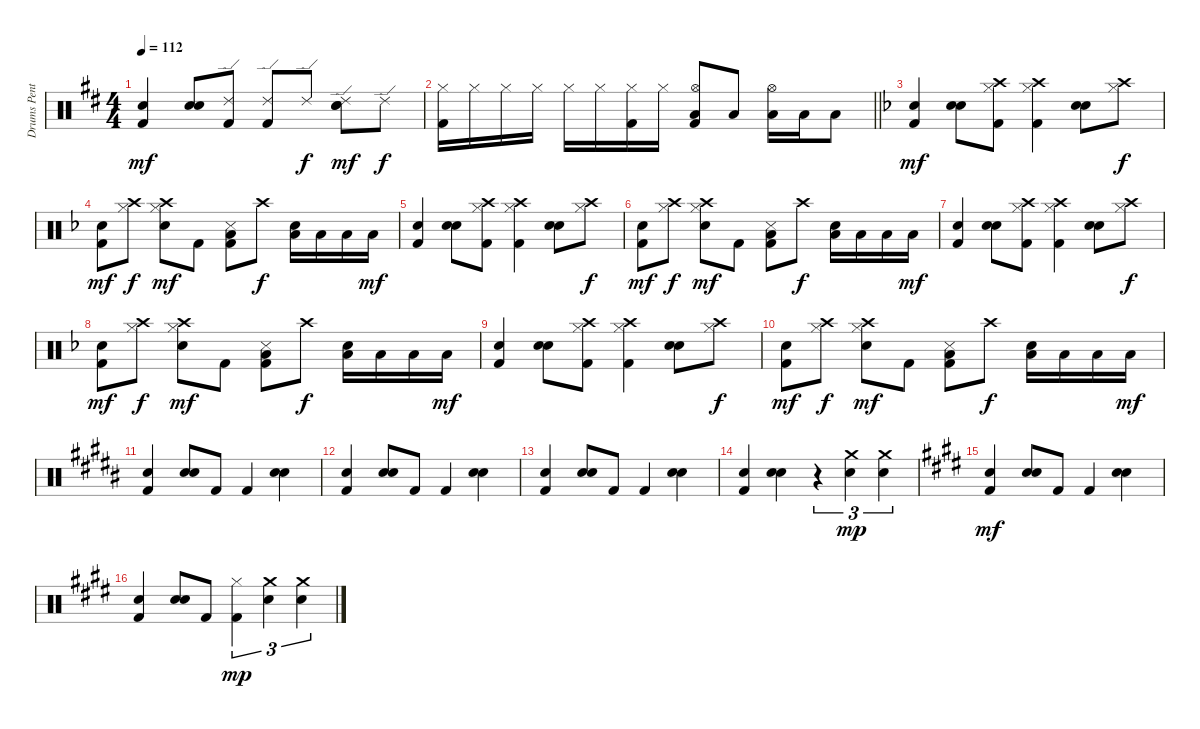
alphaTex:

\track ("Drums Pentti Glan" "Drums Pent") {mute instrument percussion}
\staff {score}
\articulation defaults
\ts (4 4)
\tempo 112
\clef neutral
\ks d
("Hand Clap (hit)" "Kick (hit) 2").4{dy mf} ("Electric Snare (hit)" "Snare (hit) 2").8 ("Ride (edge) 2" "Kick (hit) 2").8 ("Ride (edge) 2" "Kick (hit) 2").8 "Ride (edge) 2".8{dy f} ("Ride (edge) 2" "Electric Snare (hit)" "Snare (hit) 2").8{dy mf} "Ride (edge) 2".8{dy f} |
\barLineRight lightlight
("Hi-Hat (closed)" "Kick (hit) 2").16 "Hi-Hat (closed)".16 "Hi-Hat (closed)".16 "Hi-Hat (closed)".16 "Hi-Hat (closed)".16 "Hi-Hat (closed)".16 ("Hi-Hat (closed)" "Kick (hit) 2").16 "Hi-Hat (closed)".16 ("Hi-Hat (open)" "Low Tom (hit)" "Kick (hit) 2").8 "Low Tom (hit)".8 ("Hi-Hat (open)" "Low Tom (hit)").16 "Low Tom (hit)".16 "Low Tom (hit)".8 |
\ks f
("Hand Clap (hit)" "Kick (hit) 2").4{dy mf} ("Electric Snare (hit)" "Snare (hit) 2").8 ("Crash high (hit)" "Hi-Hat (closed)" "Kick (hit) 2").8 ("Crash high (hit)" "Hi-Hat (closed)" "Kick (hit) 2").4 ("Electric Snare (hit)" "Snare (hit) 2").8 ("Crash high (hit)" "Hi-Hat (closed)").8{dy f} |
("Hand Clap (hit)" "Kick (hit) 2").8{dy mf} ("Crash high (hit)" "Hi-Hat (closed)").8{dy f} ("Crash high (hit)" "Hi-Hat (closed)" "Snare (hit) 2").8{dy mf} "Kick (hit) 2".8 ("Snare (side stick) 3" "Low Tom (hit)" "Kick (hit) 2").8 "Crash high (hit)".8{dy f} ("Electric Snare (hit)" "Low Tom (hit)").16 "Low Tom (hit)".16 "Low Tom (hit)".16 "Low Tom (hit)".16{dy mf} |
("Hand Clap (hit)" "Kick (hit) 2").4 ("Electric Snare (hit)" "Snare (hit) 2").8 ("Crash high (hit)" "Hi-Hat (closed)" "Kick (hit) 2").8 ("Crash high (hit)" "Hi-Hat (closed)" "Kick (hit) 2").4 ("Electric Snare (hit)" "Snare (hit) 2").8 ("Crash high (hit)" "Hi-Hat (closed)").8{dy f} |
("Hand Clap (hit)" "Kick (hit) 2").8{dy mf} ("Crash high (hit)" "Hi-Hat (closed)").8{dy f} ("Crash high (hit)" "Hi-Hat (closed)" "Snare (hit) 2").8{dy mf} "Kick (hit) 2".8 ("Snare (side stick) 3" "Low Tom (hit)" "Kick (hit) 2").8 "Crash high (hit)".8{dy f} ("Electric Snare (hit)" "Low Tom (hit)").16 "Low Tom (hit)".16 "Low Tom (hit)".16 "Low Tom (hit)".16{dy mf} |
("Hand Clap (hit)" "Kick (hit) 2").4 ("Electric Snare (hit)" "Snare (hit) 2").8 ("Crash high (hit)" "Hi-Hat (closed)" "Kick (hit) 2").8 ("Crash high (hit)" "Hi-Hat (closed)" "Kick (hit) 2").4 ("Electric Snare (hit)" "Snare (hit) 2").8 ("Crash high (hit)" "Hi-Hat (closed)").8{dy f} |
("Hand Clap (hit)" "Kick (hit) 2").8{dy mf} ("Crash high (hit)" "Hi-Hat (closed)").8{dy f} ("Crash high (hit)" "Hi-Hat (closed)" "Snare (hit) 2").8{dy mf} "Kick (hit) 2".8 ("Snare (side stick) 3" "Low Tom (hit)" "Kick (hit) 2").8 "Crash high (hit)".8{dy f} ("Electric Snare (hit)" "Low Tom (hit)").16 "Low Tom (hit)".16 "Low Tom (hit)".16 "Low Tom (hit)".16{dy mf} |
("Hand Clap (hit)" "Kick (hit) 2").4 ("Electric Snare (hit)" "Snare (hit) 2").8 ("Crash high (hit)" "Hi-Hat (closed)" "Kick (hit) 2").8 ("Crash high (hit)" "Hi-Hat (closed)" "Kick (hit) 2").4 ("Electric Snare (hit)" "Snare (hit) 2").8 ("Crash high (hit)" "Hi-Hat (closed)").8{dy f} |
("Hand Clap (hit)" "Kick (hit) 2").8{dy mf} ("Crash high (hit)" "Hi-Hat (closed)").8{dy f} ("Crash high (hit)" "Hi-Hat (closed)" "Snare (hit) 2").8{dy mf} "Kick (hit) 2".8 ("Snare (side stick) 3" "Low Tom (hit)" "Kick (hit) 2").8 "Crash high (hit)".8{dy f} ("Electric Snare (hit)" "Low Tom (hit)").16 "Low Tom (hit)".16 "Low Tom (hit)".16 "Low Tom (hit)".16{dy mf} |
\ks b
("Hand Clap (hit)" "Kick (hit) 2").4 ("Electric Snare (hit)" "Snare (hit) 2").8 "Kick (hit) 2".8 "Kick (hit) 2".4 ("Electric Snare (hit)" "Snare (hit) 2").4 |
("Hand Clap (hit)" "Kick (hit) 2").4 ("Electric Snare (hit)" "Snare (hit) 2").8 "Kick (hit) 2".8 "Kick (hit) 2".4 ("Electric Snare (hit)" "Snare (hit) 2").4 |
("Hand Clap (hit)" "Kick (hit) 2").4 ("Electric Snare (hit)" "Snare (hit) 2").8 "Kick (hit) 2".8 "Kick (hit) 2".4 ("Electric Snare (hit)" "Snare (hit) 2").4 |
("Hand Clap (hit)" "Kick (hit) 2").4 ("Electric Snare (hit)" "Snare (hit) 2").4 r.4{tu (3 2)} ("Crash medium (hit)" "Electric Snare (hit)").4{tu (3 2) dy mp} ("Crash medium (hit)" "Electric Snare (hit)").4{tu (3 2)} |
\ks e
("Hand Clap (hit)" "Kick (hit) 2").4{dy mf} ("Electric Snare (hit)" "Snare (hit) 2").8 "Kick (hit) 2".8 "Kick (hit) 2".4 ("Electric Snare (hit)" "Snare (hit) 2").4 |
("Hand Clap (hit)" "Kick (hit) 2").4 ("Electric Snare (hit)" "Snare (hit) 2").8 "Kick (hit) 2".8 ("Hi-Hat (closed)" "Kick (hit) 2").4{tu (3 2) dy mp} ("Crash medium (hit)" "Electric Snare (hit)").4{tu (3 2)} ("Crash medium (hit)" "Electric Snare (hit)").4{tu (3 2)}
